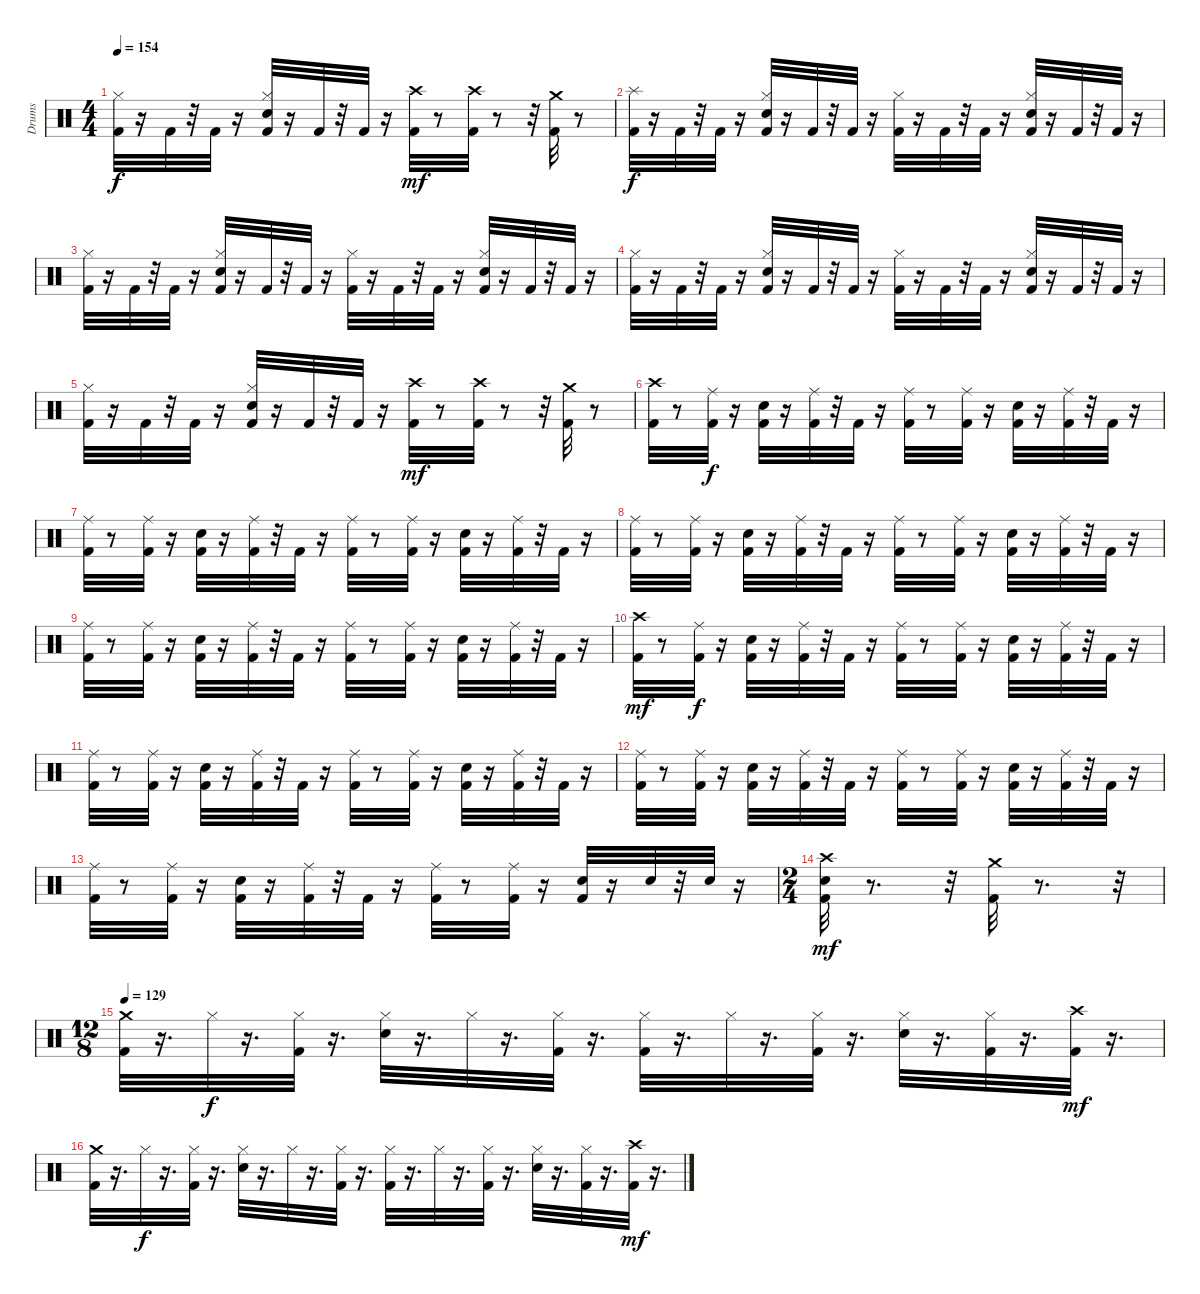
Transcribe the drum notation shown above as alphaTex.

\track ("Drums" "Drums") {instrument percussion}
\staff {score}
\articulation defaults
\ts (4 4)
\tempo 154
\clef neutral
\ks c
("Kick (hit) 2" "Hi-Hat (closed)").32{dy f} r.16 "Kick (hit) 2".32 r.32 "Kick (hit) 2".32 r.16 ("Kick (hit) 2" "Snare (hit) 2" "Hi-Hat (closed)").32 r.16 "Kick (hit) 2".32 r.32 "Kick (hit) 2".32 r.16 ("Kick (hit) 2" "Crash high (hit)").32{dy mf} r.8 ("Kick (hit) 2" "Crash high (hit)").32 r.8 r.32 ("Kick (hit) 2" "Crash medium (hit)").32 r.8 |
("Kick (hit) 2" "Splash (hit)").32{dy f} r.16 "Kick (hit) 2".32 r.32 "Kick (hit) 2".32 r.16 ("Kick (hit) 2" "Snare (hit) 2" "Hi-Hat (closed)").32 r.16 "Kick (hit) 2".32 r.32 "Kick (hit) 2".32 r.16 ("Kick (hit) 2" "Hi-Hat (closed)").32 r.16 "Kick (hit) 2".32 r.32 "Kick (hit) 2".32 r.16 ("Kick (hit) 2" "Snare (hit) 2" "Hi-Hat (closed)").32 r.16 "Kick (hit) 2".32 r.32 "Kick (hit) 2".32 r.16 |
("Kick (hit) 2" "Hi-Hat (closed)").32 r.16 "Kick (hit) 2".32 r.32 "Kick (hit) 2".32 r.16 ("Kick (hit) 2" "Snare (hit) 2" "Hi-Hat (closed)").32 r.16 "Kick (hit) 2".32 r.32 "Kick (hit) 2".32 r.16 ("Kick (hit) 2" "Hi-Hat (closed)").32 r.16 "Kick (hit) 2".32 r.32 "Kick (hit) 2".32 r.16 ("Kick (hit) 2" "Snare (hit) 2" "Hi-Hat (closed)").32 r.16 "Kick (hit) 2".32 r.32 "Kick (hit) 2".32 r.16 |
("Kick (hit) 2" "Hi-Hat (closed)").32 r.16 "Kick (hit) 2".32 r.32 "Kick (hit) 2".32 r.16 ("Kick (hit) 2" "Snare (hit) 2" "Hi-Hat (closed)").32 r.16 "Kick (hit) 2".32 r.32 "Kick (hit) 2".32 r.16 ("Kick (hit) 2" "Hi-Hat (closed)").32 r.16 "Kick (hit) 2".32 r.32 "Kick (hit) 2".32 r.16 ("Kick (hit) 2" "Snare (hit) 2" "Hi-Hat (closed)").32 r.16 "Kick (hit) 2".32 r.32 "Kick (hit) 2".32 r.16 |
("Kick (hit) 2" "Hi-Hat (closed)").32 r.16 "Kick (hit) 2".32 r.32 "Kick (hit) 2".32 r.16 ("Kick (hit) 2" "Snare (hit) 2" "Hi-Hat (closed)").32 r.16 "Kick (hit) 2".32 r.32 "Kick (hit) 2".32 r.16 ("Kick (hit) 2" "Crash high (hit)").32{dy mf} r.8 ("Kick (hit) 2" "Crash high (hit)").32 r.8 r.32 ("Kick (hit) 2" "Crash medium (hit)").32 r.8 |
("Kick (hit) 2" "Crash high (hit)").32 r.8 ("Kick (hit) 2" "Ride (middle)").32{dy f} r.16 ("Kick (hit) 2" "Snare (hit) 2").32 r.16 ("Kick (hit) 2" "Ride (middle)").32 r.32 "Kick (hit) 2".32 r.16 ("Kick (hit) 2" "Ride (middle)").32 r.8 ("Kick (hit) 2" "Ride (middle)").32 r.16 ("Kick (hit) 2" "Snare (hit) 2").32 r.16 ("Kick (hit) 2" "Ride (middle)").32 r.32 "Kick (hit) 2".32 r.16 |
("Kick (hit) 2" "Ride (middle)").32 r.8 ("Kick (hit) 2" "Ride (middle)").32 r.16 ("Kick (hit) 2" "Snare (hit) 2").32 r.16 ("Kick (hit) 2" "Ride (middle)").32 r.32 "Kick (hit) 2".32 r.16 ("Kick (hit) 2" "Ride (middle)").32 r.8 ("Kick (hit) 2" "Ride (middle)").32 r.16 ("Kick (hit) 2" "Snare (hit) 2").32 r.16 ("Kick (hit) 2" "Ride (middle)").32 r.32 "Kick (hit) 2".32 r.16 |
("Kick (hit) 2" "Ride (middle)").32 r.8 ("Kick (hit) 2" "Ride (middle)").32 r.16 ("Kick (hit) 2" "Snare (hit) 2").32 r.16 ("Kick (hit) 2" "Ride (middle)").32 r.32 "Kick (hit) 2".32 r.16 ("Kick (hit) 2" "Ride (middle)").32 r.8 ("Kick (hit) 2" "Ride (middle)").32 r.16 ("Kick (hit) 2" "Snare (hit) 2").32 r.16 ("Kick (hit) 2" "Ride (middle)").32 r.32 "Kick (hit) 2".32 r.16 |
("Kick (hit) 2" "Ride (middle)").32 r.8 ("Kick (hit) 2" "Ride (middle)").32 r.16 ("Kick (hit) 2" "Snare (hit) 2").32 r.16 ("Kick (hit) 2" "Ride (middle)").32 r.32 "Kick (hit) 2".32 r.16 ("Kick (hit) 2" "Ride (middle)").32 r.8 ("Kick (hit) 2" "Ride (middle)").32 r.16 ("Kick (hit) 2" "Snare (hit) 2").32 r.16 ("Kick (hit) 2" "Ride (middle)").32 r.32 "Kick (hit) 2".32 r.16 |
("Kick (hit) 2" "Crash high (hit)").32{dy mf} r.8 ("Kick (hit) 2" "Ride (middle)").32{dy f} r.16 ("Kick (hit) 2" "Snare (hit) 2").32 r.16 ("Kick (hit) 2" "Ride (middle)").32 r.32 "Kick (hit) 2".32 r.16 ("Kick (hit) 2" "Ride (middle)").32 r.8 ("Kick (hit) 2" "Ride (middle)").32 r.16 ("Kick (hit) 2" "Snare (hit) 2").32 r.16 ("Kick (hit) 2" "Ride (middle)").32 r.32 "Kick (hit) 2".32 r.16 |
("Kick (hit) 2" "Ride (middle)").32 r.8 ("Kick (hit) 2" "Ride (middle)").32 r.16 ("Kick (hit) 2" "Snare (hit) 2").32 r.16 ("Kick (hit) 2" "Ride (middle)").32 r.32 "Kick (hit) 2".32 r.16 ("Kick (hit) 2" "Ride (middle)").32 r.8 ("Kick (hit) 2" "Ride (middle)").32 r.16 ("Kick (hit) 2" "Snare (hit) 2").32 r.16 ("Kick (hit) 2" "Ride (middle)").32 r.32 "Kick (hit) 2".32 r.16 |
("Kick (hit) 2" "Ride (middle)").32 r.8 ("Kick (hit) 2" "Ride (middle)").32 r.16 ("Kick (hit) 2" "Snare (hit) 2").32 r.16 ("Kick (hit) 2" "Ride (middle)").32 r.32 "Kick (hit) 2".32 r.16 ("Kick (hit) 2" "Ride (middle)").32 r.8 ("Kick (hit) 2" "Ride (middle)").32 r.16 ("Kick (hit) 2" "Snare (hit) 2").32 r.16 ("Kick (hit) 2" "Ride (middle)").32 r.32 "Kick (hit) 2".32 r.16 |
("Kick (hit) 2" "Ride (middle)").32 r.8 ("Kick (hit) 2" "Ride (middle)").32 r.16 ("Kick (hit) 2" "Snare (hit) 2").32 r.16 ("Kick (hit) 2" "Ride (middle)").32 r.32 "Kick (hit) 2".32 r.16 ("Kick (hit) 2" "Ride (middle)").32 r.8 ("Kick (hit) 2" "Ride (middle)").32 r.16 ("Kick (hit) 2" "Snare (hit) 2").32 r.16 "Snare (hit) 2".32 r.32 "Snare (hit) 2".32 r.16 |
\ts (2 4)
("Kick (hit) 2" "Snare (hit) 2" "Crash high (hit)").32{dy mf} r.8{d} r.32 ("Kick (hit) 2" "Crash medium (hit)").32 r.8{d} r.32 |
\ts (12 8)
\tempo 129
("Kick (hit) 2" "Crash medium (hit)").32 r.16{d} "Hi-Hat (closed)".32{dy f} r.16{d} ("Kick (hit) 2" "Hi-Hat (closed)").32 r.16{d} ("Snare (hit) 2" "Hi-Hat (closed)").32 r.16{d} "Hi-Hat (closed)".32 r.16{d} ("Kick (hit) 2" "Hi-Hat (closed)").32 r.16{d} ("Kick (hit) 2" "Hi-Hat (closed)").32 r.16{d} "Hi-Hat (closed)".32 r.16{d} ("Kick (hit) 2" "Hi-Hat (closed)").32 r.16{d} ("Snare (hit) 2" "Hi-Hat (closed)").32 r.16{d} ("Kick (hit) 2" "Hi-Hat (closed)").32 r.16{d} ("Kick (hit) 2" "Crash high (hit)").32{dy mf} r.16{d} |
("Kick (hit) 2" "Crash medium (hit)").32 r.16{d} "Hi-Hat (closed)".32{dy f} r.16{d} ("Kick (hit) 2" "Hi-Hat (closed)").32 r.16{d} ("Snare (hit) 2" "Hi-Hat (closed)").32 r.16{d} "Hi-Hat (closed)".32 r.16{d} ("Kick (hit) 2" "Hi-Hat (closed)").32 r.16{d} ("Kick (hit) 2" "Hi-Hat (closed)").32 r.16{d} "Hi-Hat (closed)".32 r.16{d} ("Kick (hit) 2" "Hi-Hat (closed)").32 r.16{d} ("Snare (hit) 2" "Hi-Hat (closed)").32 r.16{d} ("Kick (hit) 2" "Hi-Hat (closed)").32 r.16{d} ("Kick (hit) 2" "Crash high (hit)").32{dy mf} r.16{d}
